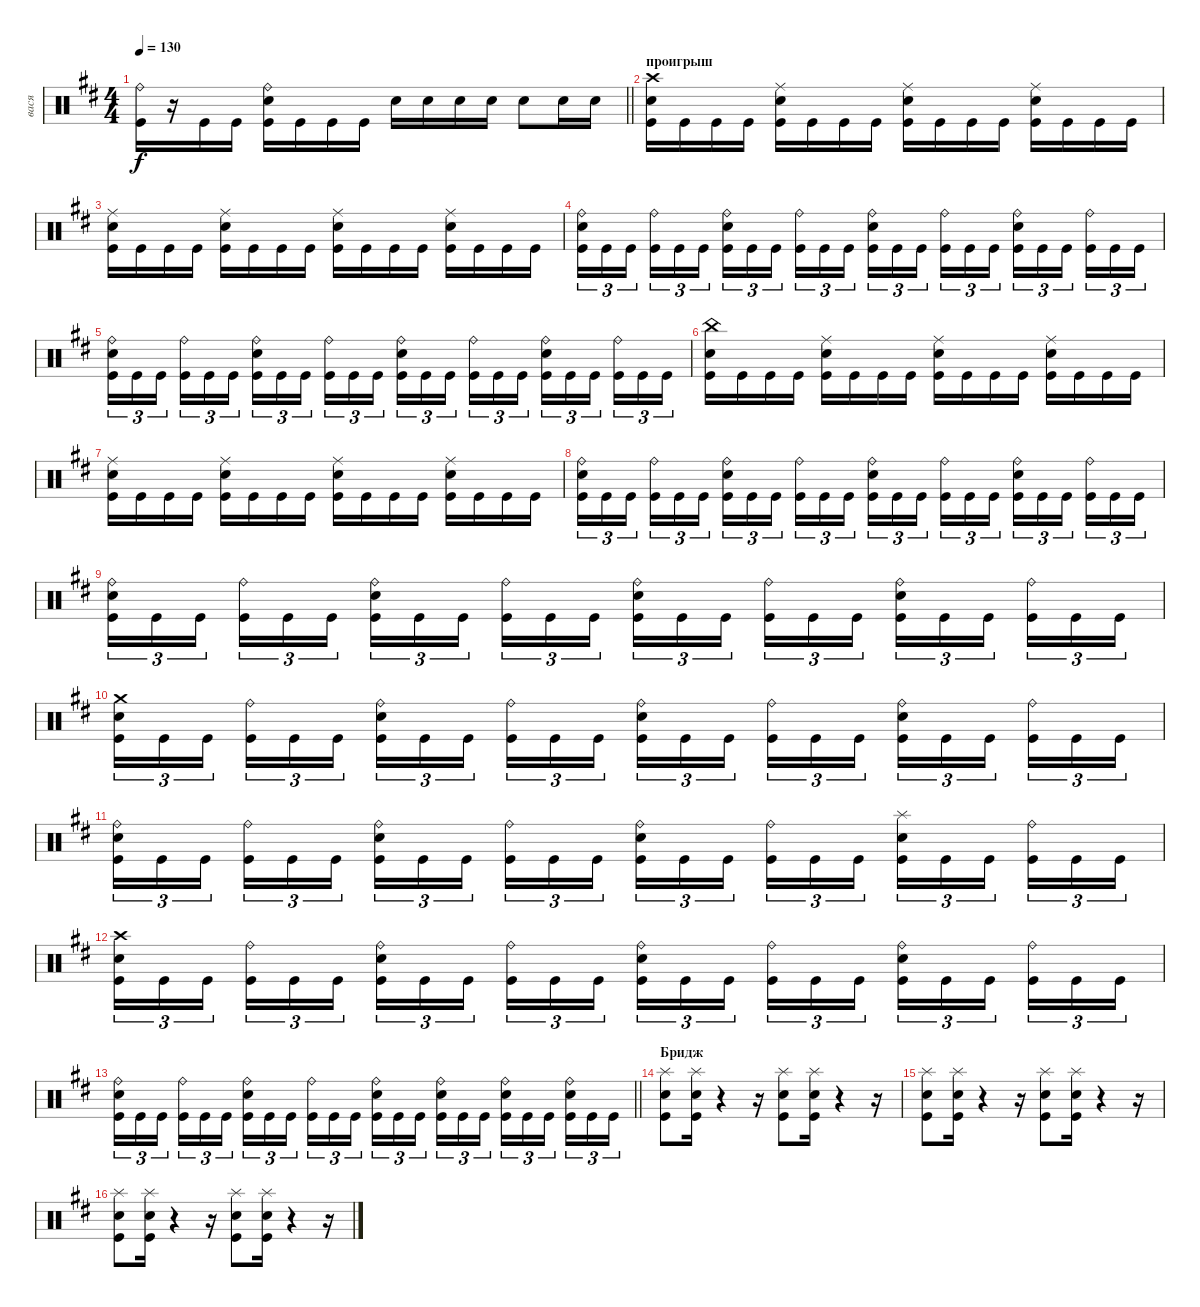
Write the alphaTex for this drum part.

\track ("вася" "вася") {instrument percussion}
\staff {score}
\articulation defaults
\ts (4 4)
\tempo 130
\clef neutral
\barLineRight lightlight
\ks bminor
("Ride (bell)" "Kick (hit)").16{dy f} r.16 "Kick (hit)".16 "Kick (hit)".16 ("Ride (bell)" "Electric Snare (hit)" "Kick (hit)").16 "Kick (hit)".16 "Kick (hit)".16 "Kick (hit)".16 "Electric Snare (hit)".16 "Electric Snare (hit)".16 "Electric Snare (hit)".16 "Electric Snare (hit)".16 "Electric Snare (hit)".8 "Electric Snare (hit)".16 "Electric Snare (hit)".16 |
\section ("" "проигрыш")
("Crash high (hit)" "Electric Snare (hit)" "Kick (hit)").16 "Kick (hit)".16 "Kick (hit)".16 "Kick (hit)".16 ("Ride (middle)" "Electric Snare (hit)" "Kick (hit)").16 "Kick (hit)".16 "Kick (hit)".16 "Kick (hit)".16 ("Ride (middle)" "Electric Snare (hit)" "Kick (hit)").16 "Kick (hit)".16 "Kick (hit)".16 "Kick (hit)".16 ("Ride (middle)" "Electric Snare (hit)" "Kick (hit)").16 "Kick (hit)".16 "Kick (hit)".16 "Kick (hit)".16 |
("Ride (middle)" "Electric Snare (hit)" "Kick (hit)").16 "Kick (hit)".16 "Kick (hit)".16 "Kick (hit)".16 ("Ride (middle)" "Electric Snare (hit)" "Kick (hit)").16 "Kick (hit)".16 "Kick (hit)".16 "Kick (hit)".16 ("Ride (middle)" "Electric Snare (hit)" "Kick (hit)").16 "Kick (hit)".16 "Kick (hit)".16 "Kick (hit)".16 ("Ride (middle)" "Electric Snare (hit)" "Kick (hit)").16 "Kick (hit)".16 "Kick (hit)".16 "Kick (hit)".16 |
("Ride (bell)" "Electric Snare (hit)" "Kick (hit)").16{tu (3 2)} "Kick (hit)".16{tu (3 2)} "Kick (hit)".16{tu (3 2) beam splitsecondary} ("Ride (bell)" "Kick (hit)").16{tu (3 2)} "Kick (hit)".16{tu (3 2)} "Kick (hit)".16{tu (3 2)} ("Ride (bell)" "Electric Snare (hit)" "Kick (hit)").16{tu (3 2)} "Kick (hit)".16{tu (3 2)} "Kick (hit)".16{tu (3 2) beam splitsecondary} ("Ride (bell)" "Kick (hit)").16{tu (3 2)} "Kick (hit)".16{tu (3 2)} "Kick (hit)".16{tu (3 2)} ("Ride (bell)" "Electric Snare (hit)" "Kick (hit)").16{tu (3 2)} "Kick (hit)".16{tu (3 2)} "Kick (hit)".16{tu (3 2) beam splitsecondary} ("Ride (bell)" "Kick (hit)").16{tu (3 2)} "Kick (hit)".16{tu (3 2)} "Kick (hit)".16{tu (3 2)} ("Ride (bell)" "Electric Snare (hit)" "Kick (hit)").16{tu (3 2)} "Kick (hit)".16{tu (3 2)} "Kick (hit)".16{tu (3 2) beam splitsecondary} ("Ride (bell)" "Kick (hit)").16{tu (3 2)} "Kick (hit)".16{tu (3 2)} "Kick (hit)".16{tu (3 2)} |
("Ride (bell)" "Electric Snare (hit)" "Kick (hit)").16{tu (3 2)} "Kick (hit)".16{tu (3 2)} "Kick (hit)".16{tu (3 2) beam splitsecondary} ("Ride (bell)" "Kick (hit)").16{tu (3 2)} "Kick (hit)".16{tu (3 2)} "Kick (hit)".16{tu (3 2)} ("Ride (bell)" "Electric Snare (hit)" "Kick (hit)").16{tu (3 2)} "Kick (hit)".16{tu (3 2)} "Kick (hit)".16{tu (3 2) beam splitsecondary} ("Ride (bell)" "Kick (hit)").16{tu (3 2)} "Kick (hit)".16{tu (3 2)} "Kick (hit)".16{tu (3 2)} ("Ride (bell)" "Electric Snare (hit)" "Kick (hit)").16{tu (3 2)} "Kick (hit)".16{tu (3 2)} "Kick (hit)".16{tu (3 2) beam splitsecondary} ("Ride (bell)" "Kick (hit)").16{tu (3 2)} "Kick (hit)".16{tu (3 2)} "Kick (hit)".16{tu (3 2)} ("Ride (bell)" "Electric Snare (hit)" "Kick (hit)").16{tu (3 2)} "Kick (hit)".16{tu (3 2)} "Kick (hit)".16{tu (3 2) beam splitsecondary} ("Ride (bell)" "Kick (hit)").16{tu (3 2)} "Kick (hit)".16{tu (3 2)} "Kick (hit)".16{tu (3 2)} |
("China (hit)" "Electric Snare (hit)" "Kick (hit)").16 "Kick (hit)".16 "Kick (hit)".16 "Kick (hit)".16 ("Ride (middle)" "Electric Snare (hit)" "Kick (hit)").16 "Kick (hit)".16 "Kick (hit)".16 "Kick (hit)".16 ("Ride (middle)" "Electric Snare (hit)" "Kick (hit)").16 "Kick (hit)".16 "Kick (hit)".16 "Kick (hit)".16 ("Ride (middle)" "Electric Snare (hit)" "Kick (hit)").16 "Kick (hit)".16 "Kick (hit)".16 "Kick (hit)".16 |
("Ride (middle)" "Electric Snare (hit)" "Kick (hit)").16 "Kick (hit)".16 "Kick (hit)".16 "Kick (hit)".16 ("Ride (middle)" "Electric Snare (hit)" "Kick (hit)").16 "Kick (hit)".16 "Kick (hit)".16 "Kick (hit)".16 ("Ride (middle)" "Electric Snare (hit)" "Kick (hit)").16 "Kick (hit)".16 "Kick (hit)".16 "Kick (hit)".16 ("Ride (middle)" "Electric Snare (hit)" "Kick (hit)").16 "Kick (hit)".16 "Kick (hit)".16 "Kick (hit)".16 |
("Ride (bell)" "Electric Snare (hit)" "Kick (hit)").16{tu (3 2)} "Kick (hit)".16{tu (3 2)} "Kick (hit)".16{tu (3 2) beam splitsecondary} ("Ride (bell)" "Kick (hit)").16{tu (3 2)} "Kick (hit)".16{tu (3 2)} "Kick (hit)".16{tu (3 2)} ("Ride (bell)" "Electric Snare (hit)" "Kick (hit)").16{tu (3 2)} "Kick (hit)".16{tu (3 2)} "Kick (hit)".16{tu (3 2) beam splitsecondary} ("Ride (bell)" "Kick (hit)").16{tu (3 2)} "Kick (hit)".16{tu (3 2)} "Kick (hit)".16{tu (3 2)} ("Ride (bell)" "Electric Snare (hit)" "Kick (hit)").16{tu (3 2)} "Kick (hit)".16{tu (3 2)} "Kick (hit)".16{tu (3 2) beam splitsecondary} ("Ride (bell)" "Kick (hit)").16{tu (3 2)} "Kick (hit)".16{tu (3 2)} "Kick (hit)".16{tu (3 2)} ("Ride (bell)" "Electric Snare (hit)" "Kick (hit)").16{tu (3 2)} "Kick (hit)".16{tu (3 2)} "Kick (hit)".16{tu (3 2) beam splitsecondary} ("Ride (bell)" "Kick (hit)").16{tu (3 2)} "Kick (hit)".16{tu (3 2)} "Kick (hit)".16{tu (3 2)} |
("Ride (bell)" "Electric Snare (hit)" "Kick (hit)").16{tu (3 2)} "Kick (hit)".16{tu (3 2)} "Kick (hit)".16{tu (3 2) beam splitsecondary} ("Ride (bell)" "Kick (hit)").16{tu (3 2)} "Kick (hit)".16{tu (3 2)} "Kick (hit)".16{tu (3 2)} ("Ride (bell)" "Electric Snare (hit)" "Kick (hit)").16{tu (3 2)} "Kick (hit)".16{tu (3 2)} "Kick (hit)".16{tu (3 2) beam splitsecondary} ("Ride (bell)" "Kick (hit)").16{tu (3 2)} "Kick (hit)".16{tu (3 2)} "Kick (hit)".16{tu (3 2)} ("Ride (bell)" "Electric Snare (hit)" "Kick (hit)").16{tu (3 2)} "Kick (hit)".16{tu (3 2)} "Kick (hit)".16{tu (3 2) beam splitsecondary} ("Ride (bell)" "Kick (hit)").16{tu (3 2)} "Kick (hit)".16{tu (3 2)} "Kick (hit)".16{tu (3 2)} ("Ride (bell)" "Electric Snare (hit)" "Kick (hit)").16{tu (3 2)} "Kick (hit)".16{tu (3 2)} "Kick (hit)".16{tu (3 2) beam splitsecondary} ("Ride (bell)" "Kick (hit)").16{tu (3 2)} "Kick (hit)".16{tu (3 2)} "Kick (hit)".16{tu (3 2)} |
("Crash medium (hit)" "Electric Snare (hit)" "Kick (hit)").16{tu (3 2)} "Kick (hit)".16{tu (3 2)} "Kick (hit)".16{tu (3 2) beam splitsecondary} ("Ride (bell)" "Kick (hit)").16{tu (3 2)} "Kick (hit)".16{tu (3 2)} "Kick (hit)".16{tu (3 2)} ("Ride (bell)" "Electric Snare (hit)" "Kick (hit)").16{tu (3 2)} "Kick (hit)".16{tu (3 2)} "Kick (hit)".16{tu (3 2) beam splitsecondary} ("Ride (bell)" "Kick (hit)").16{tu (3 2)} "Kick (hit)".16{tu (3 2)} "Kick (hit)".16{tu (3 2)} ("Ride (bell)" "Electric Snare (hit)" "Kick (hit)").16{tu (3 2)} "Kick (hit)".16{tu (3 2)} "Kick (hit)".16{tu (3 2) beam splitsecondary} ("Ride (bell)" "Kick (hit)").16{tu (3 2)} "Kick (hit)".16{tu (3 2)} "Kick (hit)".16{tu (3 2)} ("Ride (bell)" "Electric Snare (hit)" "Kick (hit)").16{tu (3 2)} "Kick (hit)".16{tu (3 2)} "Kick (hit)".16{tu (3 2) beam splitsecondary} ("Ride (bell)" "Kick (hit)").16{tu (3 2)} "Kick (hit)".16{tu (3 2)} "Kick (hit)".16{tu (3 2)} |
("Ride (bell)" "Electric Snare (hit)" "Kick (hit)").16{tu (3 2)} "Kick (hit)".16{tu (3 2)} "Kick (hit)".16{tu (3 2) beam splitsecondary} ("Ride (bell)" "Kick (hit)").16{tu (3 2)} "Kick (hit)".16{tu (3 2)} "Kick (hit)".16{tu (3 2)} ("Ride (bell)" "Electric Snare (hit)" "Kick (hit)").16{tu (3 2)} "Kick (hit)".16{tu (3 2)} "Kick (hit)".16{tu (3 2) beam splitsecondary} ("Ride (bell)" "Kick (hit)").16{tu (3 2)} "Kick (hit)".16{tu (3 2)} "Kick (hit)".16{tu (3 2)} ("Ride (bell)" "Electric Snare (hit)" "Kick (hit)").16{tu (3 2)} "Kick (hit)".16{tu (3 2)} "Kick (hit)".16{tu (3 2) beam splitsecondary} ("Ride (bell)" "Kick (hit)").16{tu (3 2)} "Kick (hit)".16{tu (3 2)} "Kick (hit)".16{tu (3 2)} ("Splash (hit)" "Electric Snare (hit)" "Kick (hit)").16{tu (3 2)} "Kick (hit)".16{tu (3 2)} "Kick (hit)".16{tu (3 2) beam splitsecondary} ("Ride (bell)" "Kick (hit)").16{tu (3 2)} "Kick (hit)".16{tu (3 2)} "Kick (hit)".16{tu (3 2)} |
("Crash high (hit)" "Electric Snare (hit)" "Kick (hit)").16{tu (3 2)} "Kick (hit)".16{tu (3 2)} "Kick (hit)".16{tu (3 2) beam splitsecondary} ("Ride (bell)" "Kick (hit)").16{tu (3 2)} "Kick (hit)".16{tu (3 2)} "Kick (hit)".16{tu (3 2)} ("Ride (bell)" "Electric Snare (hit)" "Kick (hit)").16{tu (3 2)} "Kick (hit)".16{tu (3 2)} "Kick (hit)".16{tu (3 2) beam splitsecondary} ("Ride (bell)" "Kick (hit)").16{tu (3 2)} "Kick (hit)".16{tu (3 2)} "Kick (hit)".16{tu (3 2)} ("Ride (bell)" "Electric Snare (hit)" "Kick (hit)").16{tu (3 2)} "Kick (hit)".16{tu (3 2)} "Kick (hit)".16{tu (3 2) beam splitsecondary} ("Ride (bell)" "Kick (hit)").16{tu (3 2)} "Kick (hit)".16{tu (3 2)} "Kick (hit)".16{tu (3 2)} ("Ride (bell)" "Electric Snare (hit)" "Kick (hit)").16{tu (3 2)} "Kick (hit)".16{tu (3 2)} "Kick (hit)".16{tu (3 2) beam splitsecondary} ("Ride (bell)" "Kick (hit)").16{tu (3 2)} "Kick (hit)".16{tu (3 2)} "Kick (hit)".16{tu (3 2)} |
\barLineRight lightlight
("Ride (bell)" "Electric Snare (hit)" "Kick (hit)").16{tu (3 2)} "Kick (hit)".16{tu (3 2)} "Kick (hit)".16{tu (3 2) beam splitsecondary} ("Ride (bell)" "Kick (hit)").16{tu (3 2)} "Kick (hit)".16{tu (3 2)} "Kick (hit)".16{tu (3 2)} ("Ride (bell)" "Electric Snare (hit)" "Kick (hit)").16{tu (3 2)} "Kick (hit)".16{tu (3 2)} "Kick (hit)".16{tu (3 2) beam splitsecondary} ("Ride (bell)" "Kick (hit)").16{tu (3 2)} "Kick (hit)".16{tu (3 2)} "Kick (hit)".16{tu (3 2)} ("Ride (bell)" "Electric Snare (hit)" "Kick (hit)").16{tu (3 2)} "Kick (hit)".16{tu (3 2)} "Kick (hit)".16{tu (3 2) beam splitsecondary} ("Ride (bell)" "Electric Snare (hit)" "Kick (hit)").16{tu (3 2)} "Kick (hit)".16{tu (3 2)} "Kick (hit)".16{tu (3 2)} ("Ride (bell)" "Electric Snare (hit)" "Kick (hit)").16{tu (3 2)} "Kick (hit)".16{tu (3 2)} "Kick (hit)".16{tu (3 2) beam splitsecondary} ("Ride (bell)" "Electric Snare (hit)" "Kick (hit)").16{tu (3 2)} "Kick (hit)".16{tu (3 2)} "Kick (hit)".16{tu (3 2)} |
\section ("" "Бридж")
("Splash (hit)" "Electric Snare (hit)" "Kick (hit)").8 ("Splash (hit)" "Electric Snare (hit)" "Kick (hit)").16 r.4 r.16 ("Splash (hit)" "Electric Snare (hit)" "Kick (hit)").8 ("Splash (hit)" "Electric Snare (hit)" "Kick (hit)").16 r.4 r.16 |
("Splash (hit)" "Electric Snare (hit)" "Kick (hit)").8 ("Splash (hit)" "Electric Snare (hit)" "Kick (hit)").16 r.4 r.16 ("Splash (hit)" "Electric Snare (hit)" "Kick (hit)").8 ("Splash (hit)" "Electric Snare (hit)" "Kick (hit)").16 r.4 r.16 |
("Splash (hit)" "Electric Snare (hit)" "Kick (hit)").8 ("Splash (hit)" "Electric Snare (hit)" "Kick (hit)").16 r.4 r.16 ("Splash (hit)" "Electric Snare (hit)" "Kick (hit)").8 ("Splash (hit)" "Electric Snare (hit)" "Kick (hit)").16 r.4 r.16
